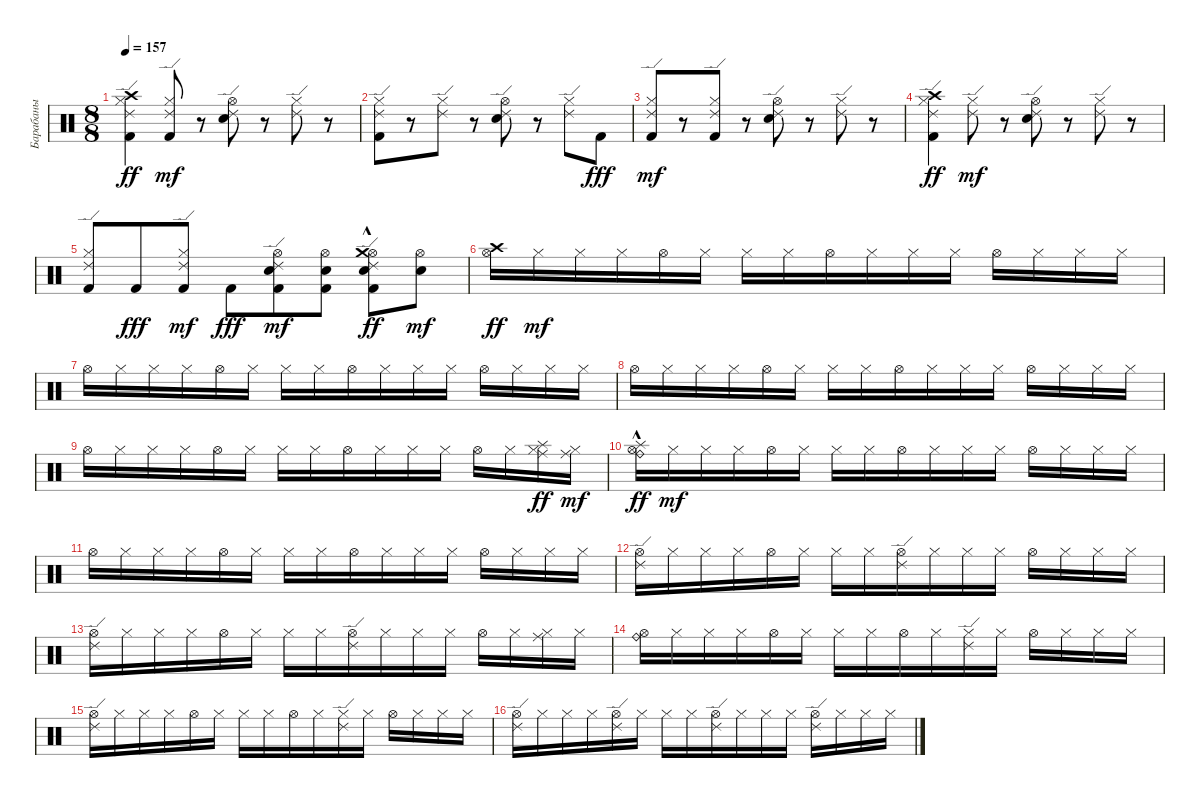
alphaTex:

\track ("Барабаны" "Барабаны") {instrument percussion}
\staff {score}
\articulation defaults
\ts (8 8)
\tempo 157
\clef neutral
\ks c
("Kick (hit) 2" "Hi-Hat (closed)" "Ride (edge) 2" "Crash high (hit)").4{dy ff} ("Kick (hit) 2" "Hi-Hat (closed)" "Ride (edge) 2").8{dy mf} r.8 ("Snare (hit) 2" "Hi-Hat (open)" "Ride (edge) 2").8 r.8 ("Hi-Hat (closed)" "Ride (edge) 2").8 r.8 |
("Kick (hit) 2" "Hi-Hat (closed)" "Ride (edge) 2").8 r.8 ("Hi-Hat (closed)" "Ride (edge) 2").8 r.8 ("Snare (hit) 2" "Hi-Hat (open)" "Ride (edge) 2").8 r.8 ("Hi-Hat (closed)" "Ride (edge) 2").8 "Kick (hit) 2".8{dy fff} |
("Kick (hit) 2" "Hi-Hat (closed)" "Ride (edge) 2").8{dy mf} r.8 ("Kick (hit) 2" "Hi-Hat (closed)" "Ride (edge) 2").8 r.8 ("Snare (hit) 2" "Hi-Hat (open)" "Ride (edge) 2").8 r.8 ("Hi-Hat (closed)" "Ride (edge) 2").8 r.8 |
("Kick (hit) 2" "Hi-Hat (closed)" "Ride (edge) 2" "Crash high (hit)").4{dy ff} ("Hi-Hat (closed)" "Ride (edge) 2").8{dy mf} r.8 ("Snare (hit) 2" "Hi-Hat (open)" "Ride (edge) 2").8 r.8 ("Hi-Hat (closed)" "Ride (edge) 2").8 r.8 |
("Kick (hit) 2" "Hi-Hat (closed)" "Ride (edge) 2").8 "Kick (hit) 2".8{dy fff} ("Kick (hit) 2" "Hi-Hat (closed)" "Ride (edge) 2").8{dy mf} "Kick (hit) 2".8{dy fff} ("Kick (hit) 2" "Snare (hit) 2" "Hi-Hat (open)" "Ride (edge) 2").8{dy mf} ("Kick (hit) 2" "Snare (hit) 2" "Hi-Hat (open)").8 ("Kick (hit) 2" "Snare (hit) 2" "Hi-Hat (open)" "Ride (edge) 2" "Crash medium (hit)"{hac}).8{dy ff} ("Snare (hit) 2" "Hi-Hat (open)").8{dy mf} |
("Hi-Hat (open)" "Crash high (hit)").16{dy ff} "Hi-Hat (closed)".16{dy mf} "Hi-Hat (closed)".16 "Hi-Hat (closed)".16 "Hi-Hat (open)".16 "Hi-Hat (closed)".16 "Hi-Hat (closed)".16 "Hi-Hat (closed)".16 "Hi-Hat (open)".16 "Hi-Hat (closed)".16 "Hi-Hat (closed)".16 "Hi-Hat (closed)".16 "Hi-Hat (open)".16 "Hi-Hat (closed)".16 "Hi-Hat (closed)".16 "Hi-Hat (closed)".16 |
"Hi-Hat (open)".16 "Hi-Hat (closed)".16 "Hi-Hat (closed)".16 "Hi-Hat (closed)".16 "Hi-Hat (open)".16 "Hi-Hat (closed)".16 "Hi-Hat (closed)".16 "Hi-Hat (closed)".16 "Hi-Hat (open)".16 "Hi-Hat (closed)".16 "Hi-Hat (closed)".16 "Hi-Hat (closed)".16 "Hi-Hat (open)".16 "Hi-Hat (closed)".16 "Hi-Hat (closed)".16 "Hi-Hat (closed)".16 |
"Hi-Hat (open)".16 "Hi-Hat (closed)".16 "Hi-Hat (closed)".16 "Hi-Hat (closed)".16 "Hi-Hat (open)".16 "Hi-Hat (closed)".16 "Hi-Hat (closed)".16 "Hi-Hat (closed)".16 "Hi-Hat (open)".16 "Hi-Hat (closed)".16 "Hi-Hat (closed)".16 "Hi-Hat (closed)".16 "Hi-Hat (open)".16 "Hi-Hat (closed)".16 "Hi-Hat (closed)".16 "Hi-Hat (closed)".16 |
"Hi-Hat (open)".16 "Hi-Hat (closed)".16 "Hi-Hat (closed)".16 "Hi-Hat (closed)".16 "Hi-Hat (open)".16 "Hi-Hat (closed)".16 "Hi-Hat (closed)".16 "Hi-Hat (closed)".16 "Hi-Hat (open)".16 "Hi-Hat (closed)".16 "Hi-Hat (closed)".16 "Hi-Hat (closed)".16 "Hi-Hat (open)".16 "Hi-Hat (closed)".16 ("Hi-Hat (closed)" "Ride (middle)" "Splash (hit)").16{dy ff} ("Hi-Hat (closed)" "Ride (middle)").16{dy mf} |
("Hi-Hat (open)" "Ride (bell)" "Splash (hit)"{hac}).16{dy ff} "Hi-Hat (closed)".16{dy mf} "Hi-Hat (closed)".16 "Hi-Hat (closed)".16 "Hi-Hat (open)".16 "Hi-Hat (closed)".16 "Hi-Hat (closed)".16 "Hi-Hat (closed)".16 "Hi-Hat (open)".16 "Hi-Hat (closed)".16 "Hi-Hat (closed)".16 "Hi-Hat (closed)".16 "Hi-Hat (open)".16 "Hi-Hat (closed)".16 "Hi-Hat (closed)".16 "Hi-Hat (closed)".16 |
"Hi-Hat (open)".16 "Hi-Hat (closed)".16 "Hi-Hat (closed)".16 "Hi-Hat (closed)".16 "Hi-Hat (open)".16 "Hi-Hat (closed)".16 "Hi-Hat (closed)".16 "Hi-Hat (closed)".16 "Hi-Hat (open)".16 "Hi-Hat (closed)".16 "Hi-Hat (closed)".16 "Hi-Hat (closed)".16 "Hi-Hat (open)".16 "Hi-Hat (closed)".16 "Hi-Hat (closed)".16 "Hi-Hat (closed)".16 |
("Hi-Hat (open)" "Ride (edge) 2").16 "Hi-Hat (closed)".16 "Hi-Hat (closed)".16 "Hi-Hat (closed)".16 "Hi-Hat (open)".16 "Hi-Hat (closed)".16 "Hi-Hat (closed)".16 "Hi-Hat (closed)".16 ("Hi-Hat (open)" "Ride (edge) 2").16 "Hi-Hat (closed)".16 "Hi-Hat (closed)".16 "Hi-Hat (closed)".16 "Hi-Hat (open)".16 "Hi-Hat (closed)".16 "Hi-Hat (closed)".16 "Hi-Hat (closed)".16 |
("Hi-Hat (open)" "Ride (edge) 2").16 "Hi-Hat (closed)".16 "Hi-Hat (closed)".16 "Hi-Hat (closed)".16 "Hi-Hat (open)".16 "Hi-Hat (closed)".16 "Hi-Hat (closed)".16 "Hi-Hat (closed)".16 ("Hi-Hat (open)" "Ride (edge) 2").16 "Hi-Hat (closed)".16 "Hi-Hat (closed)".16 "Hi-Hat (closed)".16 "Hi-Hat (open)".16 "Hi-Hat (closed)".16 ("Hi-Hat (closed)" "Ride (middle)").16 "Hi-Hat (closed)".16 |
("Hi-Hat (open)" "Ride (bell)").16 "Hi-Hat (closed)".16 "Hi-Hat (closed)".16 "Hi-Hat (closed)".16 "Hi-Hat (open)".16 "Hi-Hat (closed)".16 "Hi-Hat (closed)".16 "Hi-Hat (closed)".16 "Hi-Hat (open)".16 "Hi-Hat (closed)".16 ("Hi-Hat (closed)" "Ride (edge) 2").16 "Hi-Hat (closed)".16 "Hi-Hat (open)".16 "Hi-Hat (closed)".16 "Hi-Hat (closed)".16 "Hi-Hat (closed)".16 |
("Hi-Hat (open)" "Ride (edge) 2").16 "Hi-Hat (closed)".16 "Hi-Hat (closed)".16 "Hi-Hat (closed)".16 "Hi-Hat (open)".16 "Hi-Hat (closed)".16 "Hi-Hat (closed)".16 "Hi-Hat (closed)".16 "Hi-Hat (open)".16 "Hi-Hat (closed)".16 ("Hi-Hat (closed)" "Ride (edge) 2").16 "Hi-Hat (closed)".16 "Hi-Hat (open)".16 "Hi-Hat (closed)".16 "Hi-Hat (closed)".16 "Hi-Hat (closed)".16 |
("Hi-Hat (open)" "Ride (edge) 2").16 "Hi-Hat (closed)".16 "Hi-Hat (closed)".16 "Hi-Hat (closed)".16 ("Hi-Hat (open)" "Ride (edge) 2").16 "Hi-Hat (closed)".16 "Hi-Hat (closed)".16 "Hi-Hat (closed)".16 ("Hi-Hat (open)" "Ride (edge) 2").16 "Hi-Hat (closed)".16 "Hi-Hat (closed)".16 "Hi-Hat (closed)".16 ("Hi-Hat (open)" "Ride (edge) 2").16 "Hi-Hat (closed)".16 "Hi-Hat (closed)".16 "Hi-Hat (closed)".16
